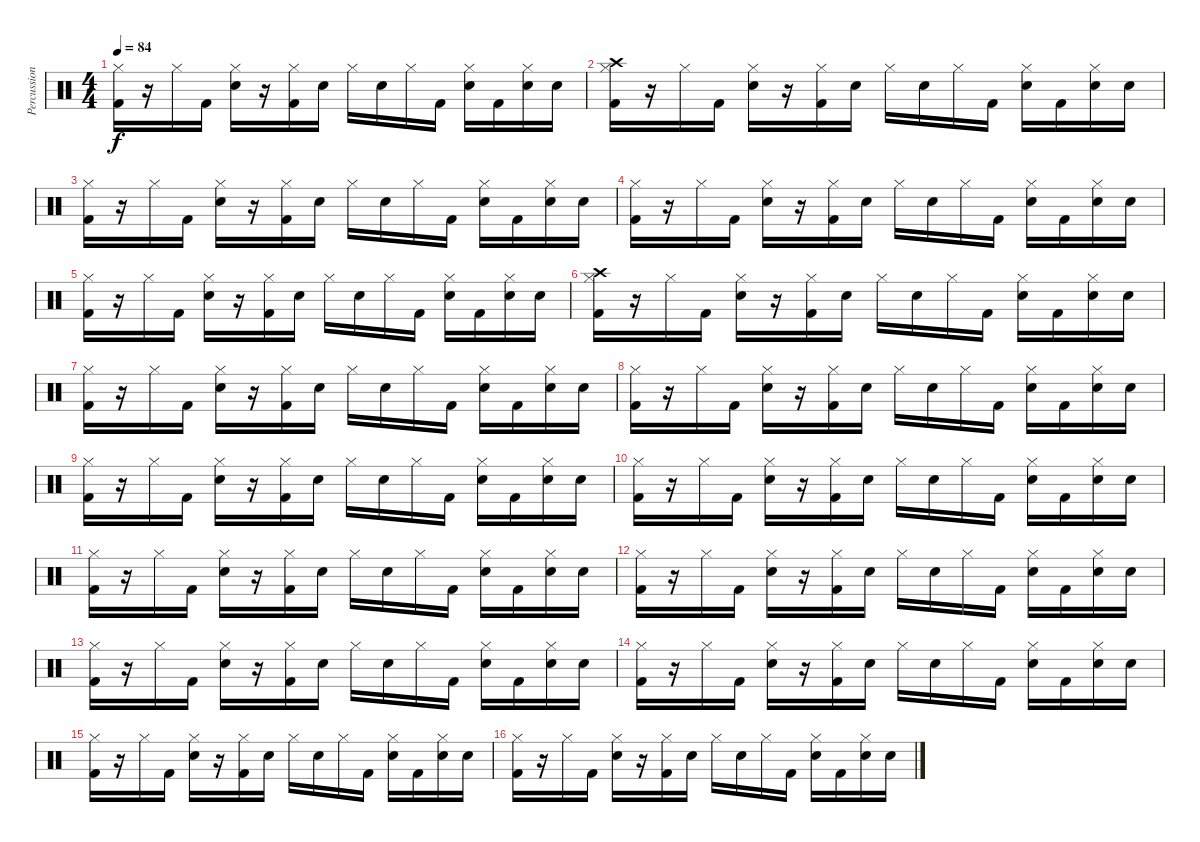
\track ("Percussion" "Percussion") {instrument percussion}
\staff {score}
\articulation defaults
\ts (4 4)
\tempo 84
\clef neutral
\ks c
("Hi-Hat (closed)" "Kick (hit) 2").16{dy f} r.16 "Hi-Hat (closed)".16 "Kick (hit) 2".16 ("Hi-Hat (closed)" "Snare (hit) 2").16 r.16 ("Hi-Hat (closed)" "Kick (hit) 2").16 "Snare (hit) 2".16 "Hi-Hat (closed)".16 "Snare (hit) 2".16 "Hi-Hat (closed)".16 "Kick (hit) 2".16 ("Hi-Hat (closed)" "Snare (hit) 2").16 "Kick (hit) 2".16 ("Hi-Hat (closed)" "Snare (hit) 2").16 "Snare (hit) 2".16 |
("Crash high (hit)" "Hi-Hat (closed)" "Kick (hit) 2").16 r.16 "Hi-Hat (closed)".16 "Kick (hit) 2".16 ("Hi-Hat (closed)" "Snare (hit) 2").16 r.16 ("Hi-Hat (closed)" "Kick (hit) 2").16 "Snare (hit) 2".16 "Hi-Hat (closed)".16 "Snare (hit) 2".16 "Hi-Hat (closed)".16 "Kick (hit) 2".16 ("Hi-Hat (closed)" "Snare (hit) 2").16 "Kick (hit) 2".16 ("Hi-Hat (closed)" "Snare (hit) 2").16 "Snare (hit) 2".16 |
("Hi-Hat (closed)" "Kick (hit) 2").16 r.16 "Hi-Hat (closed)".16 "Kick (hit) 2".16 ("Hi-Hat (closed)" "Snare (hit) 2").16 r.16 ("Hi-Hat (closed)" "Kick (hit) 2").16 "Snare (hit) 2".16 "Hi-Hat (closed)".16 "Snare (hit) 2".16 "Hi-Hat (closed)".16 "Kick (hit) 2".16 ("Hi-Hat (closed)" "Snare (hit) 2").16 "Kick (hit) 2".16 ("Hi-Hat (closed)" "Snare (hit) 2").16 "Snare (hit) 2".16 |
("Hi-Hat (closed)" "Kick (hit) 2").16 r.16 "Hi-Hat (closed)".16 "Kick (hit) 2".16 ("Hi-Hat (closed)" "Snare (hit) 2").16 r.16 ("Hi-Hat (closed)" "Kick (hit) 2").16 "Snare (hit) 2".16 "Hi-Hat (closed)".16 "Snare (hit) 2".16 "Hi-Hat (closed)".16 "Kick (hit) 2".16 ("Hi-Hat (closed)" "Snare (hit) 2").16 "Kick (hit) 2".16 ("Hi-Hat (closed)" "Snare (hit) 2").16 "Snare (hit) 2".16 |
("Hi-Hat (closed)" "Kick (hit) 2").16 r.16 "Hi-Hat (closed)".16 "Kick (hit) 2".16 ("Hi-Hat (closed)" "Snare (hit) 2").16 r.16 ("Hi-Hat (closed)" "Kick (hit) 2").16 "Snare (hit) 2".16 "Hi-Hat (closed)".16 "Snare (hit) 2".16 "Hi-Hat (closed)".16 "Kick (hit) 2".16 ("Hi-Hat (closed)" "Snare (hit) 2").16 "Kick (hit) 2".16 ("Hi-Hat (closed)" "Snare (hit) 2").16 "Snare (hit) 2".16 |
("Crash high (hit)" "Hi-Hat (closed)" "Kick (hit) 2").16 r.16 "Hi-Hat (closed)".16 "Kick (hit) 2".16 ("Hi-Hat (closed)" "Snare (hit) 2").16 r.16 ("Hi-Hat (closed)" "Kick (hit) 2").16 "Snare (hit) 2".16 "Hi-Hat (closed)".16 "Snare (hit) 2".16 "Hi-Hat (closed)".16 "Kick (hit) 2".16 ("Hi-Hat (closed)" "Snare (hit) 2").16 "Kick (hit) 2".16 ("Hi-Hat (closed)" "Snare (hit) 2").16 "Snare (hit) 2".16 |
("Hi-Hat (closed)" "Kick (hit) 2").16 r.16 "Hi-Hat (closed)".16 "Kick (hit) 2".16 ("Hi-Hat (closed)" "Snare (hit) 2").16 r.16 ("Hi-Hat (closed)" "Kick (hit) 2").16 "Snare (hit) 2".16 "Hi-Hat (closed)".16 "Snare (hit) 2".16 "Hi-Hat (closed)".16 "Kick (hit) 2".16 ("Hi-Hat (closed)" "Snare (hit) 2").16 "Kick (hit) 2".16 ("Hi-Hat (closed)" "Snare (hit) 2").16 "Snare (hit) 2".16 |
("Hi-Hat (closed)" "Kick (hit) 2").16 r.16 "Hi-Hat (closed)".16 "Kick (hit) 2".16 ("Hi-Hat (closed)" "Snare (hit) 2").16 r.16 ("Hi-Hat (closed)" "Kick (hit) 2").16 "Snare (hit) 2".16 "Hi-Hat (closed)".16 "Snare (hit) 2".16 "Hi-Hat (closed)".16 "Kick (hit) 2".16 ("Hi-Hat (closed)" "Snare (hit) 2").16 "Kick (hit) 2".16 ("Hi-Hat (closed)" "Snare (hit) 2").16 "Snare (hit) 2".16 |
("Hi-Hat (closed)" "Kick (hit) 2").16 r.16 "Hi-Hat (closed)".16 "Kick (hit) 2".16 ("Hi-Hat (closed)" "Snare (hit) 2").16 r.16 ("Hi-Hat (closed)" "Kick (hit) 2").16 "Snare (hit) 2".16 "Hi-Hat (closed)".16 "Snare (hit) 2".16 "Hi-Hat (closed)".16 "Kick (hit) 2".16 ("Hi-Hat (closed)" "Snare (hit) 2").16 "Kick (hit) 2".16 ("Hi-Hat (closed)" "Snare (hit) 2").16 "Snare (hit) 2".16 |
("Hi-Hat (closed)" "Kick (hit) 2").16 r.16 "Hi-Hat (closed)".16 "Kick (hit) 2".16 ("Hi-Hat (closed)" "Snare (hit) 2").16 r.16 ("Hi-Hat (closed)" "Kick (hit) 2").16 "Snare (hit) 2".16 "Hi-Hat (closed)".16 "Snare (hit) 2".16 "Hi-Hat (closed)".16 "Kick (hit) 2".16 ("Hi-Hat (closed)" "Snare (hit) 2").16 "Kick (hit) 2".16 ("Hi-Hat (closed)" "Snare (hit) 2").16 "Snare (hit) 2".16 |
("Hi-Hat (closed)" "Kick (hit) 2").16 r.16 "Hi-Hat (closed)".16 "Kick (hit) 2".16 ("Hi-Hat (closed)" "Snare (hit) 2").16 r.16 ("Hi-Hat (closed)" "Kick (hit) 2").16 "Snare (hit) 2".16 "Hi-Hat (closed)".16 "Snare (hit) 2".16 "Hi-Hat (closed)".16 "Kick (hit) 2".16 ("Hi-Hat (closed)" "Snare (hit) 2").16 "Kick (hit) 2".16 ("Hi-Hat (closed)" "Snare (hit) 2").16 "Snare (hit) 2".16 |
("Hi-Hat (closed)" "Kick (hit) 2").16 r.16 "Hi-Hat (closed)".16 "Kick (hit) 2".16 ("Hi-Hat (closed)" "Snare (hit) 2").16 r.16 ("Hi-Hat (closed)" "Kick (hit) 2").16 "Snare (hit) 2".16 "Hi-Hat (closed)".16 "Snare (hit) 2".16 "Hi-Hat (closed)".16 "Kick (hit) 2".16 ("Hi-Hat (closed)" "Snare (hit) 2").16 "Kick (hit) 2".16 ("Hi-Hat (closed)" "Snare (hit) 2").16 "Snare (hit) 2".16 |
("Hi-Hat (closed)" "Kick (hit) 2").16 r.16 "Hi-Hat (closed)".16 "Kick (hit) 2".16 ("Hi-Hat (closed)" "Snare (hit) 2").16 r.16 ("Hi-Hat (closed)" "Kick (hit) 2").16 "Snare (hit) 2".16 "Hi-Hat (closed)".16 "Snare (hit) 2".16 "Hi-Hat (closed)".16 "Kick (hit) 2".16 ("Hi-Hat (closed)" "Snare (hit) 2").16 "Kick (hit) 2".16 ("Hi-Hat (closed)" "Snare (hit) 2").16 "Snare (hit) 2".16 |
("Hi-Hat (closed)" "Kick (hit) 2").16 r.16 "Hi-Hat (closed)".16 "Kick (hit) 2".16 ("Hi-Hat (closed)" "Snare (hit) 2").16 r.16 ("Hi-Hat (closed)" "Kick (hit) 2").16 "Snare (hit) 2".16 "Hi-Hat (closed)".16 "Snare (hit) 2".16 "Hi-Hat (closed)".16 "Kick (hit) 2".16 ("Hi-Hat (closed)" "Snare (hit) 2").16 "Kick (hit) 2".16 ("Hi-Hat (closed)" "Snare (hit) 2").16 "Snare (hit) 2".16 |
("Hi-Hat (closed)" "Kick (hit) 2").16 r.16 "Hi-Hat (closed)".16 "Kick (hit) 2".16 ("Hi-Hat (closed)" "Snare (hit) 2").16 r.16 ("Hi-Hat (closed)" "Kick (hit) 2").16 "Snare (hit) 2".16 "Hi-Hat (closed)".16 "Snare (hit) 2".16 "Hi-Hat (closed)".16 "Kick (hit) 2".16 ("Hi-Hat (closed)" "Snare (hit) 2").16 "Kick (hit) 2".16 ("Hi-Hat (closed)" "Snare (hit) 2").16 "Snare (hit) 2".16 |
("Hi-Hat (closed)" "Kick (hit) 2").16 r.16 "Hi-Hat (closed)".16 "Kick (hit) 2".16 ("Hi-Hat (closed)" "Snare (hit) 2").16 r.16 ("Hi-Hat (closed)" "Kick (hit) 2").16 "Snare (hit) 2".16 "Hi-Hat (closed)".16 "Snare (hit) 2".16 "Hi-Hat (closed)".16 "Kick (hit) 2".16 ("Hi-Hat (closed)" "Snare (hit) 2").16 "Kick (hit) 2".16 ("Hi-Hat (closed)" "Snare (hit) 2").16 "Snare (hit) 2".16
